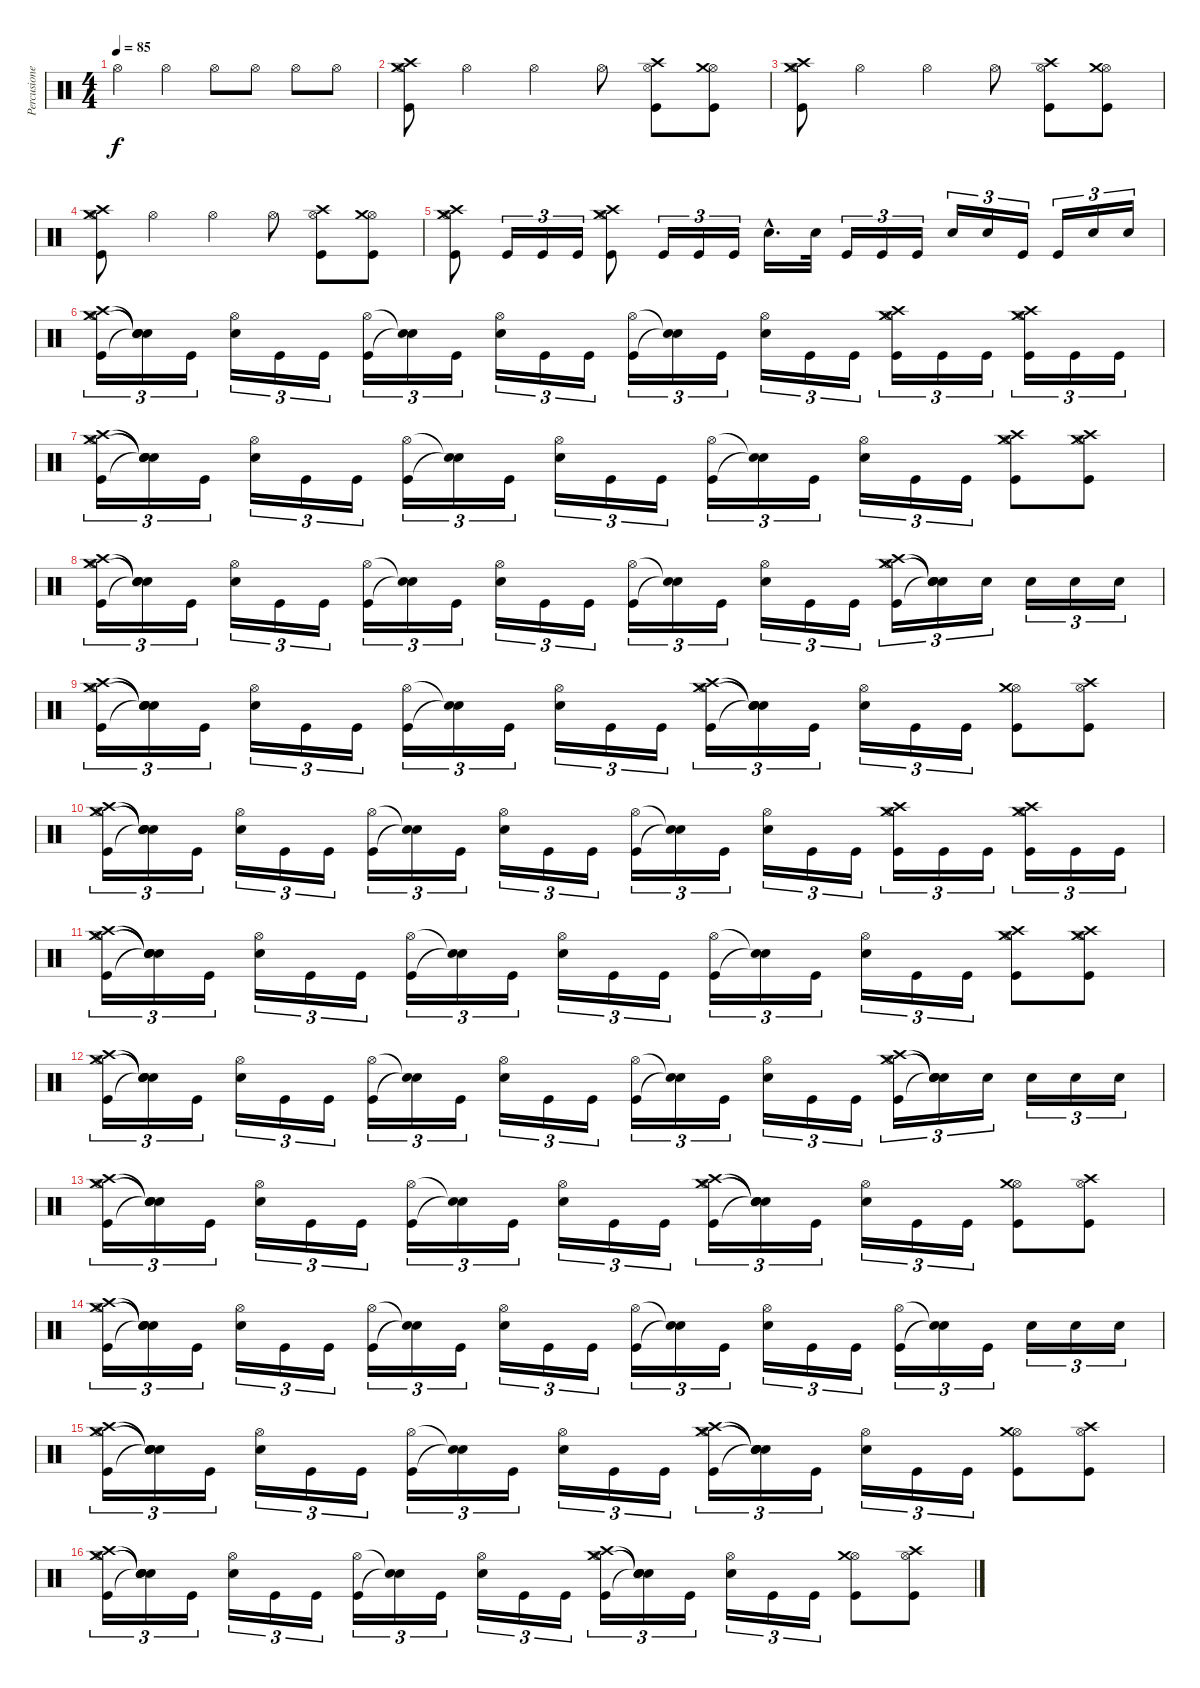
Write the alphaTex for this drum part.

\track ("Percusiones" "Percusione") {instrument percussion}
\staff {score}
\articulation defaults
\ts (4 4)
\tempo 85
\clef neutral
\ks c "Hi-Hat (open)".4{dy f} "Hi-Hat (open)".4 "Hi-Hat (open)".8 "Hi-Hat (open)".8 "Hi-Hat (open)".8 "Hi-Hat (open)".8
|
("Hi-Hat (open)" "Crash high (hit)" "Crash medium (hit)" "Kick (hit)").8 "Hi-Hat (open)".4 "Hi-Hat (open)".4 "Hi-Hat (open)".8 ("Hi-Hat (open)" "Crash high (hit)" "Kick (hit)").8 ("Hi-Hat (open)" "Crash medium (hit)" "Kick (hit)").8 |
("Hi-Hat (open)" "Crash high (hit)" "Crash medium (hit)" "Kick (hit)").8 "Hi-Hat (open)".4 "Hi-Hat (open)".4 "Hi-Hat (open)".8 ("Hi-Hat (open)" "Crash high (hit)" "Kick (hit)").8 ("Hi-Hat (open)" "Crash medium (hit)" "Kick (hit)").8 |
("Hi-Hat (open)" "Crash high (hit)" "Crash medium (hit)" "Kick (hit)").8 "Hi-Hat (open)".4 "Hi-Hat (open)".4 "Hi-Hat (open)".8 ("Hi-Hat (open)" "Crash high (hit)" "Kick (hit)").8 ("Hi-Hat (open)" "Crash medium (hit)" "Kick (hit)").8 |
("Hi-Hat (open)" "Crash high (hit)" "Crash medium (hit)" "Kick (hit)").8 "Kick (hit)".16{tu (3 2)} "Kick (hit)".16{tu (3 2)} "Kick (hit)".16{tu (3 2)} ("Hi-Hat (open)" "Crash high (hit)" "Crash medium (hit)" "Kick (hit)").8 "Kick (hit)".16{tu (3 2)} "Kick (hit)".16{tu (3 2)} "Kick (hit)".16{tu (3 2)} "Electric Snare (hit)"{hac}.16{d} "Electric Snare (hit)".32 "Kick (hit)".16{tu (3 2)} "Kick (hit)".16{tu (3 2)} "Kick (hit)".16{tu (3 2)} "Electric Snare (hit)".16{tu (3 2)} "Electric Snare (hit)".16{tu (3 2)} "Kick (hit)".16{tu (3 2)} "Kick (hit)".16{tu (3 2)} "Electric Snare (hit)".16{tu (3 2)} "Electric Snare (hit)".16{tu (3 2)} |
("Hi-Hat (open)" "Crash high (hit)" "Crash medium (hit)" "Kick (hit)").16{tu (3 2)} ("Snare (hit)"{t} "Snare (hit)"{t} "Snare (hit)"{t} "Snare (hit)"{t}).16{tu (3 2)} "Kick (hit)".16{tu (3 2)} ("Hi-Hat (open)" "Electric Snare (hit)").16{tu (3 2)} "Kick (hit)".16{tu (3 2)} "Kick (hit)".16{tu (3 2)} ("Hi-Hat (open)" "Kick (hit)").16{tu (3 2)} ("Snare (hit)"{t} "Snare (hit)"{t}).16{tu (3 2)} "Kick (hit)".16{tu (3 2)} ("Hi-Hat (open)" "Electric Snare (hit)").16{tu (3 2)} "Kick (hit)".16{tu (3 2)} "Kick (hit)".16{tu (3 2)} ("Hi-Hat (open)" "Kick (hit)").16{tu (3 2)} ("Snare (hit)"{t} "Snare (hit)"{t}).16{tu (3 2)} "Kick (hit)".16{tu (3 2)} ("Hi-Hat (open)" "Electric Snare (hit)").16{tu (3 2)} "Kick (hit)".16{tu (3 2)} "Kick (hit)".16{tu (3 2)} ("Hi-Hat (open)" "Crash medium (hit)" "Crash high (hit)" "Kick (hit)").16{tu (3 2)} "Kick (hit)".16{tu (3 2)} "Kick (hit)".16{tu (3 2)} ("Hi-Hat (open)" "Crash high (hit)" "Crash medium (hit)" "Kick (hit)").16{tu (3 2)} "Kick (hit)".16{tu (3 2)} "Kick (hit)".16{tu (3 2)} |
("Hi-Hat (open)" "Crash high (hit)" "Crash medium (hit)" "Kick (hit)").16{tu (3 2)} ("Snare (hit)"{t} "Snare (hit)"{t} "Snare (hit)"{t} "Snare (hit)"{t}).16{tu (3 2)} "Kick (hit)".16{tu (3 2)} ("Hi-Hat (open)" "Electric Snare (hit)").16{tu (3 2)} "Kick (hit)".16{tu (3 2)} "Kick (hit)".16{tu (3 2)} ("Hi-Hat (open)" "Kick (hit)").16{tu (3 2)} ("Snare (hit)"{t} "Snare (hit)"{t}).16{tu (3 2)} "Kick (hit)".16{tu (3 2)} ("Hi-Hat (open)" "Electric Snare (hit)").16{tu (3 2)} "Kick (hit)".16{tu (3 2)} "Kick (hit)".16{tu (3 2)} ("Hi-Hat (open)" "Kick (hit)").16{tu (3 2)} ("Snare (hit)"{t} "Snare (hit)"{t}).16{tu (3 2)} "Kick (hit)".16{tu (3 2)} ("Hi-Hat (open)" "Electric Snare (hit)").16{tu (3 2)} "Kick (hit)".16{tu (3 2)} "Kick (hit)".16{tu (3 2)} ("Hi-Hat (open)" "Crash medium (hit)" "Crash high (hit)" "Kick (hit)").8 ("Hi-Hat (open)" "Crash high (hit)" "Crash medium (hit)" "Kick (hit)").8 |
("Hi-Hat (open)" "Crash high (hit)" "Crash medium (hit)" "Kick (hit)").16{tu (3 2)} ("Snare (hit)"{t} "Snare (hit)"{t} "Snare (hit)"{t} "Snare (hit)"{t}).16{tu (3 2)} "Kick (hit)".16{tu (3 2)} ("Hi-Hat (open)" "Electric Snare (hit)").16{tu (3 2)} "Kick (hit)".16{tu (3 2)} "Kick (hit)".16{tu (3 2)} ("Hi-Hat (open)" "Kick (hit)").16{tu (3 2)} ("Snare (hit)"{t} "Snare (hit)"{t}).16{tu (3 2)} "Kick (hit)".16{tu (3 2)} ("Hi-Hat (open)" "Electric Snare (hit)").16{tu (3 2)} "Kick (hit)".16{tu (3 2)} "Kick (hit)".16{tu (3 2)} ("Hi-Hat (open)" "Kick (hit)").16{tu (3 2)} ("Snare (hit)"{t} "Snare (hit)"{t}).16{tu (3 2)} "Kick (hit)".16{tu (3 2)} ("Hi-Hat (open)" "Electric Snare (hit)").16{tu (3 2)} "Kick (hit)".16{tu (3 2)} "Kick (hit)".16{tu (3 2)} ("Hi-Hat (open)" "Crash medium (hit)" "Crash high (hit)" "Kick (hit)").16{tu (3 2)} ("Snare (hit)"{t} "Snare (hit)"{t} "Snare (hit)"{t} "Snare (hit)"{t}).16{tu (3 2)} "Electric Snare (hit)".16{tu (3 2)} "Electric Snare (hit)".16{tu (3 2)} "Electric Snare (hit)".16{tu (3 2)} "Electric Snare (hit)".16{tu (3 2)} |
("Hi-Hat (open)" "Crash high (hit)" "Crash medium (hit)" "Kick (hit)").16{tu (3 2)} ("Snare (hit)"{t} "Snare (hit)"{t} "Snare (hit)"{t} "Snare (hit)"{t}).16{tu (3 2)} "Kick (hit)".16{tu (3 2)} ("Hi-Hat (open)" "Electric Snare (hit)").16{tu (3 2)} "Kick (hit)".16{tu (3 2)} "Kick (hit)".16{tu (3 2)} ("Hi-Hat (open)" "Kick (hit)").16{tu (3 2)} ("Snare (hit)"{t} "Snare (hit)"{t}).16{tu (3 2)} "Kick (hit)".16{tu (3 2)} ("Hi-Hat (open)" "Electric Snare (hit)").16{tu (3 2)} "Kick (hit)".16{tu (3 2)} "Kick (hit)".16{tu (3 2)} ("Hi-Hat (open)" "Crash high (hit)" "Crash medium (hit)" "Kick (hit)").16{tu (3 2)} ("Snare (hit)"{t} "Snare (hit)"{t} "Snare (hit)"{t} "Snare (hit)"{t}).16{tu (3 2)} "Kick (hit)".16{tu (3 2)} ("Hi-Hat (open)" "Electric Snare (hit)").16{tu (3 2)} "Kick (hit)".16{tu (3 2)} "Kick (hit)".16{tu (3 2)} ("Hi-Hat (open)" "Crash medium (hit)" "Kick (hit)").8 ("Hi-Hat (open)" "Crash high (hit)" "Kick (hit)").8 |
("Hi-Hat (open)" "Crash high (hit)" "Crash medium (hit)" "Kick (hit)").16{tu (3 2)} ("Snare (hit)"{t} "Snare (hit)"{t} "Snare (hit)"{t} "Snare (hit)"{t}).16{tu (3 2)} "Kick (hit)".16{tu (3 2)} ("Hi-Hat (open)" "Electric Snare (hit)").16{tu (3 2)} "Kick (hit)".16{tu (3 2)} "Kick (hit)".16{tu (3 2)} ("Hi-Hat (open)" "Kick (hit)").16{tu (3 2)} ("Snare (hit)"{t} "Snare (hit)"{t}).16{tu (3 2)} "Kick (hit)".16{tu (3 2)} ("Hi-Hat (open)" "Electric Snare (hit)").16{tu (3 2)} "Kick (hit)".16{tu (3 2)} "Kick (hit)".16{tu (3 2)} ("Hi-Hat (open)" "Kick (hit)").16{tu (3 2)} ("Snare (hit)"{t} "Snare (hit)"{t}).16{tu (3 2)} "Kick (hit)".16{tu (3 2)} ("Hi-Hat (open)" "Electric Snare (hit)").16{tu (3 2)} "Kick (hit)".16{tu (3 2)} "Kick (hit)".16{tu (3 2)} ("Hi-Hat (open)" "Crash medium (hit)" "Crash high (hit)" "Kick (hit)").16{tu (3 2)} "Kick (hit)".16{tu (3 2)} "Kick (hit)".16{tu (3 2)} ("Hi-Hat (open)" "Crash high (hit)" "Crash medium (hit)" "Kick (hit)").16{tu (3 2)} "Kick (hit)".16{tu (3 2)} "Kick (hit)".16{tu (3 2)} |
("Hi-Hat (open)" "Crash high (hit)" "Crash medium (hit)" "Kick (hit)").16{tu (3 2)} ("Snare (hit)"{t} "Snare (hit)"{t} "Snare (hit)"{t} "Snare (hit)"{t}).16{tu (3 2)} "Kick (hit)".16{tu (3 2)} ("Hi-Hat (open)" "Electric Snare (hit)").16{tu (3 2)} "Kick (hit)".16{tu (3 2)} "Kick (hit)".16{tu (3 2)} ("Hi-Hat (open)" "Kick (hit)").16{tu (3 2)} ("Snare (hit)"{t} "Snare (hit)"{t}).16{tu (3 2)} "Kick (hit)".16{tu (3 2)} ("Hi-Hat (open)" "Electric Snare (hit)").16{tu (3 2)} "Kick (hit)".16{tu (3 2)} "Kick (hit)".16{tu (3 2)} ("Hi-Hat (open)" "Kick (hit)").16{tu (3 2)} ("Snare (hit)"{t} "Snare (hit)"{t}).16{tu (3 2)} "Kick (hit)".16{tu (3 2)} ("Hi-Hat (open)" "Electric Snare (hit)").16{tu (3 2)} "Kick (hit)".16{tu (3 2)} "Kick (hit)".16{tu (3 2)} ("Hi-Hat (open)" "Crash medium (hit)" "Crash high (hit)" "Kick (hit)").8 ("Hi-Hat (open)" "Crash high (hit)" "Crash medium (hit)" "Kick (hit)").8 |
("Hi-Hat (open)" "Crash high (hit)" "Crash medium (hit)" "Kick (hit)").16{tu (3 2)} ("Snare (hit)"{t} "Snare (hit)"{t} "Snare (hit)"{t} "Snare (hit)"{t}).16{tu (3 2)} "Kick (hit)".16{tu (3 2)} ("Hi-Hat (open)" "Electric Snare (hit)").16{tu (3 2)} "Kick (hit)".16{tu (3 2)} "Kick (hit)".16{tu (3 2)} ("Hi-Hat (open)" "Kick (hit)").16{tu (3 2)} ("Snare (hit)"{t} "Snare (hit)"{t}).16{tu (3 2)} "Kick (hit)".16{tu (3 2)} ("Hi-Hat (open)" "Electric Snare (hit)").16{tu (3 2)} "Kick (hit)".16{tu (3 2)} "Kick (hit)".16{tu (3 2)} ("Hi-Hat (open)" "Kick (hit)").16{tu (3 2)} ("Snare (hit)"{t} "Snare (hit)"{t}).16{tu (3 2)} "Kick (hit)".16{tu (3 2)} ("Hi-Hat (open)" "Electric Snare (hit)").16{tu (3 2)} "Kick (hit)".16{tu (3 2)} "Kick (hit)".16{tu (3 2)} ("Hi-Hat (open)" "Crash medium (hit)" "Crash high (hit)" "Kick (hit)").16{tu (3 2)} ("Snare (hit)"{t} "Snare (hit)"{t} "Snare (hit)"{t} "Snare (hit)"{t}).16{tu (3 2)} "Electric Snare (hit)".16{tu (3 2)} "Electric Snare (hit)".16{tu (3 2)} "Electric Snare (hit)".16{tu (3 2)} "Electric Snare (hit)".16{tu (3 2)} |
("Hi-Hat (open)" "Crash high (hit)" "Crash medium (hit)" "Kick (hit)").16{tu (3 2)} ("Snare (hit)"{t} "Snare (hit)"{t} "Snare (hit)"{t} "Snare (hit)"{t}).16{tu (3 2)} "Kick (hit)".16{tu (3 2)} ("Hi-Hat (open)" "Electric Snare (hit)").16{tu (3 2)} "Kick (hit)".16{tu (3 2)} "Kick (hit)".16{tu (3 2)} ("Hi-Hat (open)" "Kick (hit)").16{tu (3 2)} ("Snare (hit)"{t} "Snare (hit)"{t}).16{tu (3 2)} "Kick (hit)".16{tu (3 2)} ("Hi-Hat (open)" "Electric Snare (hit)").16{tu (3 2)} "Kick (hit)".16{tu (3 2)} "Kick (hit)".16{tu (3 2)} ("Hi-Hat (open)" "Crash high (hit)" "Crash medium (hit)" "Kick (hit)").16{tu (3 2)} ("Snare (hit)"{t} "Snare (hit)"{t} "Snare (hit)"{t} "Snare (hit)"{t}).16{tu (3 2)} "Kick (hit)".16{tu (3 2)} ("Hi-Hat (open)" "Electric Snare (hit)").16{tu (3 2)} "Kick (hit)".16{tu (3 2)} "Kick (hit)".16{tu (3 2)} ("Hi-Hat (open)" "Crash medium (hit)" "Kick (hit)").8 ("Hi-Hat (open)" "Crash high (hit)" "Kick (hit)").8 |
("Hi-Hat (open)" "Crash high (hit)" "Crash medium (hit)" "Kick (hit)").16{tu (3 2)} ("Snare (hit)"{t} "Snare (hit)"{t} "Snare (hit)"{t} "Snare (hit)"{t}).16{tu (3 2)} "Kick (hit)".16{tu (3 2)} ("Hi-Hat (open)" "Electric Snare (hit)").16{tu (3 2)} "Kick (hit)".16{tu (3 2)} "Kick (hit)".16{tu (3 2)} ("Hi-Hat (open)" "Kick (hit)").16{tu (3 2)} ("Snare (hit)"{t} "Snare (hit)"{t}).16{tu (3 2)} "Kick (hit)".16{tu (3 2)} ("Hi-Hat (open)" "Electric Snare (hit)").16{tu (3 2)} "Kick (hit)".16{tu (3 2)} "Kick (hit)".16{tu (3 2)} ("Hi-Hat (open)" "Kick (hit)").16{tu (3 2)} ("Snare (hit)"{t} "Snare (hit)"{t}).16{tu (3 2)} "Kick (hit)".16{tu (3 2)} ("Hi-Hat (open)" "Electric Snare (hit)").16{tu (3 2)} "Kick (hit)".16{tu (3 2)} "Kick (hit)".16{tu (3 2)} ("Hi-Hat (open)" "Kick (hit)").16{tu (3 2)} ("Snare (hit)"{t} "Snare (hit)"{t}).16{tu (3 2)} "Kick (hit)".16{tu (3 2)} "Electric Snare (hit)".16{tu (3 2)} "Electric Snare (hit)".16{tu (3 2)} "Electric Snare (hit)".16{tu (3 2)} |
("Hi-Hat (open)" "Crash high (hit)" "Crash medium (hit)" "Kick (hit)").16{tu (3 2)} ("Snare (hit)"{t} "Snare (hit)"{t} "Snare (hit)"{t} "Snare (hit)"{t}).16{tu (3 2)} "Kick (hit)".16{tu (3 2)} ("Hi-Hat (open)" "Electric Snare (hit)").16{tu (3 2)} "Kick (hit)".16{tu (3 2)} "Kick (hit)".16{tu (3 2)} ("Hi-Hat (open)" "Kick (hit)").16{tu (3 2)} ("Snare (hit)"{t} "Snare (hit)"{t}).16{tu (3 2)} "Kick (hit)".16{tu (3 2)} ("Hi-Hat (open)" "Electric Snare (hit)").16{tu (3 2)} "Kick (hit)".16{tu (3 2)} "Kick (hit)".16{tu (3 2)} ("Hi-Hat (open)" "Crash high (hit)" "Crash medium (hit)" "Kick (hit)").16{tu (3 2)} ("Snare (hit)"{t} "Snare (hit)"{t} "Snare (hit)"{t} "Snare (hit)"{t}).16{tu (3 2)} "Kick (hit)".16{tu (3 2)} ("Hi-Hat (open)" "Electric Snare (hit)").16{tu (3 2)} "Kick (hit)".16{tu (3 2)} "Kick (hit)".16{tu (3 2)} ("Hi-Hat (open)" "Crash medium (hit)" "Kick (hit)").8 ("Hi-Hat (open)" "Crash high (hit)" "Kick (hit)").8 |
("Hi-Hat (open)" "Crash high (hit)" "Crash medium (hit)" "Kick (hit)").16{tu (3 2)} ("Snare (hit)"{t} "Snare (hit)"{t} "Snare (hit)"{t} "Snare (hit)"{t}).16{tu (3 2)} "Kick (hit)".16{tu (3 2)} ("Hi-Hat (open)" "Electric Snare (hit)").16{tu (3 2)} "Kick (hit)".16{tu (3 2)} "Kick (hit)".16{tu (3 2)} ("Hi-Hat (open)" "Kick (hit)").16{tu (3 2)} ("Snare (hit)"{t} "Snare (hit)"{t}).16{tu (3 2)} "Kick (hit)".16{tu (3 2)} ("Hi-Hat (open)" "Electric Snare (hit)").16{tu (3 2)} "Kick (hit)".16{tu (3 2)} "Kick (hit)".16{tu (3 2)} ("Hi-Hat (open)" "Crash high (hit)" "Crash medium (hit)" "Kick (hit)").16{tu (3 2)} ("Snare (hit)"{t} "Snare (hit)"{t} "Snare (hit)"{t} "Snare (hit)"{t}).16{tu (3 2)} "Kick (hit)".16{tu (3 2)} ("Hi-Hat (open)" "Electric Snare (hit)").16{tu (3 2)} "Kick (hit)".16{tu (3 2)} "Kick (hit)".16{tu (3 2)} ("Hi-Hat (open)" "Crash medium (hit)" "Kick (hit)").8 ("Hi-Hat (open)" "Crash high (hit)" "Kick (hit)").8
